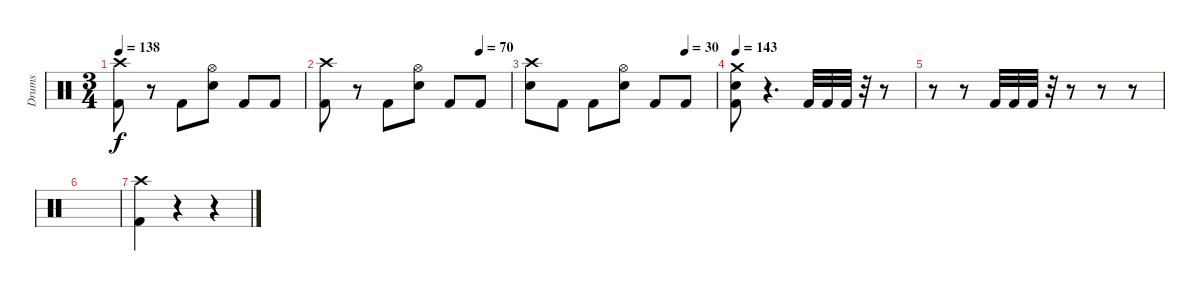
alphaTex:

\track ("Drums" "Drums") {instrument percussion}
\staff {score}
\articulation defaults
\ts (3 4)
\tempo 138
\clef neutral
\ks c
("Crash high (hit)" "Kick (hit) 2").8{dy f} r.8 "Kick (hit) 2".8 ("Hi-Hat (open)" "Snare (hit) 2").8 "Kick (hit) 2".8 "Kick (hit) 2".8 |
\tempo (70 0.8333333333333334)
("Crash high (hit)" "Kick (hit) 2").8 r.8 "Kick (hit) 2".8 ("Hi-Hat (open)" "Snare (hit) 2").8 "Kick (hit) 2".8 "Kick (hit) 2".8 |
\tempo (30 0.8333333333333334)
("Crash high (hit)" "Snare (hit) 2").8 "Kick (hit) 2".8 "Kick (hit) 2".8 ("Hi-Hat (open)" "Snare (hit) 2").8 "Kick (hit) 2".8 "Kick (hit) 2".8 |
\tempo 143
("Crash medium (hit)" "Snare (hit) 2" "Kick (hit) 2").8 r.4{d} "Kick (hit) 2".32 "Kick (hit) 2".32 "Kick (hit) 2".32 r.32 r.8 |
r.8 r.8 "Kick (hit) 2".32 "Kick (hit) 2".32 "Kick (hit) 2".32 r.32 r.8 r.8 r.8 |
|
("Crash high (hit)" "Kick (hit) 2").4 r.4 r.4
